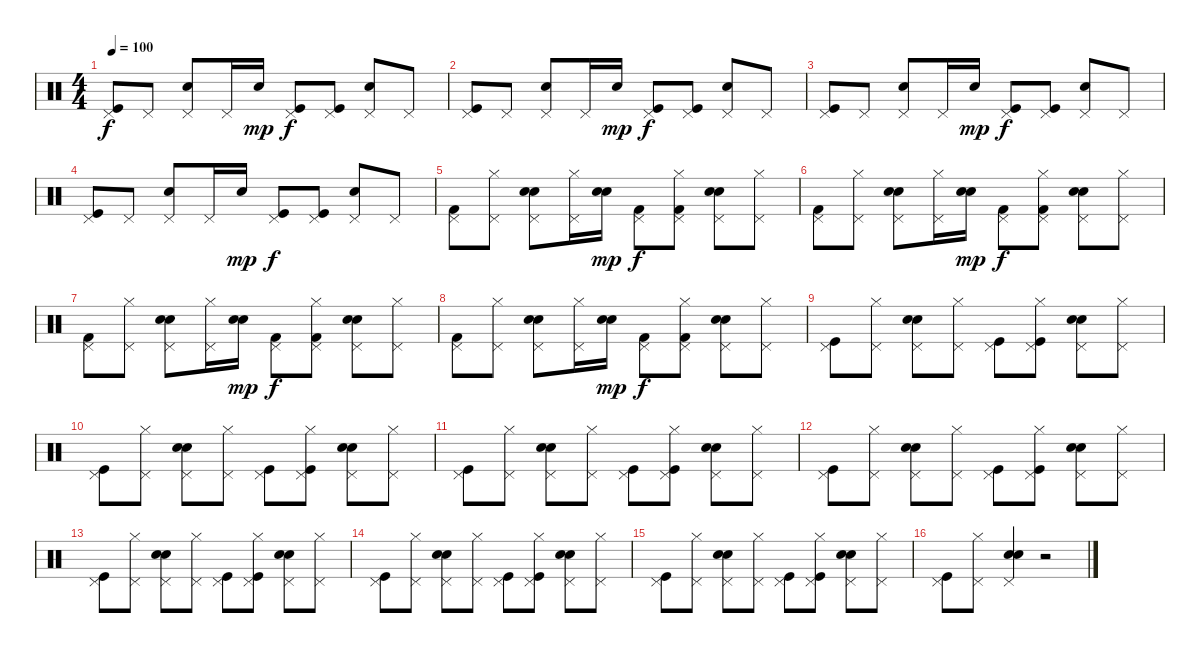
\track "" {instrument percussion}
\staff {score}
\articulation defaults
\ts (4 4)
\tempo 100
\clef neutral
\ks c
("Pedal Hi-Hat (hit)" "Kick (hit)").8{dy f} "Pedal Hi-Hat (hit)".8 ("Electric Snare (hit)" "Pedal Hi-Hat (hit)").8 "Pedal Hi-Hat (hit)".16 "Electric Snare (hit)".16{dy mp} ("Pedal Hi-Hat (hit)" "Kick (hit)").8{dy f} ("Pedal Hi-Hat (hit)" "Kick (hit)").8 ("Electric Snare (hit)" "Pedal Hi-Hat (hit)").8 "Pedal Hi-Hat (hit)".8 |
("Pedal Hi-Hat (hit)" "Kick (hit)").8 "Pedal Hi-Hat (hit)".8 ("Electric Snare (hit)" "Pedal Hi-Hat (hit)").8 "Pedal Hi-Hat (hit)".16 "Electric Snare (hit)".16{dy mp} ("Pedal Hi-Hat (hit)" "Kick (hit)").8{dy f} ("Pedal Hi-Hat (hit)" "Kick (hit)").8 ("Electric Snare (hit)" "Pedal Hi-Hat (hit)").8 "Pedal Hi-Hat (hit)".8 |
("Pedal Hi-Hat (hit)" "Kick (hit)").8 "Pedal Hi-Hat (hit)".8 ("Electric Snare (hit)" "Pedal Hi-Hat (hit)").8 "Pedal Hi-Hat (hit)".16 "Electric Snare (hit)".16{dy mp} ("Pedal Hi-Hat (hit)" "Kick (hit)").8{dy f} ("Pedal Hi-Hat (hit)" "Kick (hit)").8 ("Electric Snare (hit)" "Pedal Hi-Hat (hit)").8 "Pedal Hi-Hat (hit)".8 |
("Pedal Hi-Hat (hit)" "Kick (hit)").8 "Pedal Hi-Hat (hit)".8 ("Electric Snare (hit)" "Pedal Hi-Hat (hit)").8 "Pedal Hi-Hat (hit)".16 "Electric Snare (hit)".16{dy mp} ("Pedal Hi-Hat (hit)" "Kick (hit)").8{dy f} ("Pedal Hi-Hat (hit)" "Kick (hit)").8 ("Electric Snare (hit)" "Pedal Hi-Hat (hit)").8 "Pedal Hi-Hat (hit)".8 |
("Pedal Hi-Hat (hit)" "Kick (hit) 2").8 ("Hi-Hat (closed)" "Pedal Hi-Hat (hit)").8 ("Snare (hit) 2" "Electric Snare (hit)" "Pedal Hi-Hat (hit)").8 ("Hi-Hat (closed)" "Pedal Hi-Hat (hit)").16 ("Electric Snare (hit)" "Snare (hit) 2").16{dy mp} ("Pedal Hi-Hat (hit)" "Kick (hit) 2").8{dy f} ("Hi-Hat (closed)" "Pedal Hi-Hat (hit)" "Kick (hit) 2").8 ("Snare (hit) 2" "Electric Snare (hit)" "Pedal Hi-Hat (hit)").8 ("Hi-Hat (closed)" "Pedal Hi-Hat (hit)").8 |
("Pedal Hi-Hat (hit)" "Kick (hit) 2").8 ("Hi-Hat (closed)" "Pedal Hi-Hat (hit)").8 ("Snare (hit) 2" "Electric Snare (hit)" "Pedal Hi-Hat (hit)").8 ("Hi-Hat (closed)" "Pedal Hi-Hat (hit)").16 ("Electric Snare (hit)" "Snare (hit) 2").16{dy mp} ("Pedal Hi-Hat (hit)" "Kick (hit) 2").8{dy f} ("Hi-Hat (closed)" "Pedal Hi-Hat (hit)" "Kick (hit) 2").8 ("Snare (hit) 2" "Electric Snare (hit)" "Pedal Hi-Hat (hit)").8 ("Hi-Hat (closed)" "Pedal Hi-Hat (hit)").8 |
("Pedal Hi-Hat (hit)" "Kick (hit) 2").8 ("Hi-Hat (closed)" "Pedal Hi-Hat (hit)").8 ("Snare (hit) 2" "Electric Snare (hit)" "Pedal Hi-Hat (hit)").8 ("Hi-Hat (closed)" "Pedal Hi-Hat (hit)").16 ("Electric Snare (hit)" "Snare (hit) 2").16{dy mp} ("Pedal Hi-Hat (hit)" "Kick (hit) 2").8{dy f} ("Hi-Hat (closed)" "Pedal Hi-Hat (hit)" "Kick (hit) 2").8 ("Snare (hit) 2" "Electric Snare (hit)" "Pedal Hi-Hat (hit)").8 ("Hi-Hat (closed)" "Pedal Hi-Hat (hit)").8 |
("Pedal Hi-Hat (hit)" "Kick (hit) 2").8 ("Hi-Hat (closed)" "Pedal Hi-Hat (hit)").8 ("Snare (hit) 2" "Electric Snare (hit)" "Pedal Hi-Hat (hit)").8 ("Hi-Hat (closed)" "Pedal Hi-Hat (hit)").16 ("Electric Snare (hit)" "Snare (hit) 2").16{dy mp} ("Pedal Hi-Hat (hit)" "Kick (hit) 2").8{dy f} ("Hi-Hat (closed)" "Pedal Hi-Hat (hit)" "Kick (hit) 2").8 ("Snare (hit) 2" "Electric Snare (hit)" "Pedal Hi-Hat (hit)").8 ("Hi-Hat (closed)" "Pedal Hi-Hat (hit)").8 |
("Pedal Hi-Hat (hit)" "Kick (hit)").8 ("Hi-Hat (closed)" "Pedal Hi-Hat (hit)").8 ("Snare (hit) 2" "Electric Snare (hit)" "Pedal Hi-Hat (hit)").8 ("Hi-Hat (closed)" "Pedal Hi-Hat (hit)").8 ("Pedal Hi-Hat (hit)" "Kick (hit)").8 ("Hi-Hat (closed)" "Pedal Hi-Hat (hit)" "Kick (hit)").8 ("Snare (hit) 2" "Electric Snare (hit)" "Pedal Hi-Hat (hit)").8 ("Hi-Hat (closed)" "Pedal Hi-Hat (hit)").8 |
("Pedal Hi-Hat (hit)" "Kick (hit)").8 ("Hi-Hat (closed)" "Pedal Hi-Hat (hit)").8 ("Snare (hit) 2" "Electric Snare (hit)" "Pedal Hi-Hat (hit)").8 ("Hi-Hat (closed)" "Pedal Hi-Hat (hit)").8 ("Pedal Hi-Hat (hit)" "Kick (hit)").8 ("Hi-Hat (closed)" "Pedal Hi-Hat (hit)" "Kick (hit)").8 ("Snare (hit) 2" "Electric Snare (hit)" "Pedal Hi-Hat (hit)").8 ("Hi-Hat (closed)" "Pedal Hi-Hat (hit)").8 |
("Pedal Hi-Hat (hit)" "Kick (hit)").8 ("Hi-Hat (closed)" "Pedal Hi-Hat (hit)").8 ("Snare (hit) 2" "Electric Snare (hit)" "Pedal Hi-Hat (hit)").8 ("Hi-Hat (closed)" "Pedal Hi-Hat (hit)").8 ("Pedal Hi-Hat (hit)" "Kick (hit)").8 ("Hi-Hat (closed)" "Pedal Hi-Hat (hit)" "Kick (hit)").8 ("Snare (hit) 2" "Electric Snare (hit)" "Pedal Hi-Hat (hit)").8 ("Hi-Hat (closed)" "Pedal Hi-Hat (hit)").8 |
("Pedal Hi-Hat (hit)" "Kick (hit)").8 ("Hi-Hat (closed)" "Pedal Hi-Hat (hit)").8 ("Snare (hit) 2" "Electric Snare (hit)" "Pedal Hi-Hat (hit)").8 ("Hi-Hat (closed)" "Pedal Hi-Hat (hit)").8 ("Pedal Hi-Hat (hit)" "Kick (hit)").8 ("Hi-Hat (closed)" "Pedal Hi-Hat (hit)" "Kick (hit)").8 ("Snare (hit) 2" "Electric Snare (hit)" "Pedal Hi-Hat (hit)").8 ("Hi-Hat (closed)" "Pedal Hi-Hat (hit)").8 |
("Pedal Hi-Hat (hit)" "Kick (hit)").8 ("Hi-Hat (closed)" "Pedal Hi-Hat (hit)").8 ("Snare (hit) 2" "Electric Snare (hit)" "Pedal Hi-Hat (hit)").8 ("Hi-Hat (closed)" "Pedal Hi-Hat (hit)").8 ("Pedal Hi-Hat (hit)" "Kick (hit)").8 ("Hi-Hat (closed)" "Pedal Hi-Hat (hit)" "Kick (hit)").8 ("Snare (hit) 2" "Electric Snare (hit)" "Pedal Hi-Hat (hit)").8 ("Hi-Hat (closed)" "Pedal Hi-Hat (hit)").8 |
("Pedal Hi-Hat (hit)" "Kick (hit)").8 ("Hi-Hat (closed)" "Pedal Hi-Hat (hit)").8 ("Snare (hit) 2" "Electric Snare (hit)" "Pedal Hi-Hat (hit)").8 ("Hi-Hat (closed)" "Pedal Hi-Hat (hit)").8 ("Pedal Hi-Hat (hit)" "Kick (hit)").8 ("Hi-Hat (closed)" "Pedal Hi-Hat (hit)" "Kick (hit)").8 ("Snare (hit) 2" "Electric Snare (hit)" "Pedal Hi-Hat (hit)").8 ("Hi-Hat (closed)" "Pedal Hi-Hat (hit)").8 |
("Pedal Hi-Hat (hit)" "Kick (hit)").8 ("Hi-Hat (closed)" "Pedal Hi-Hat (hit)").8 ("Snare (hit) 2" "Electric Snare (hit)" "Pedal Hi-Hat (hit)").8 ("Hi-Hat (closed)" "Pedal Hi-Hat (hit)").8 ("Pedal Hi-Hat (hit)" "Kick (hit)").8 ("Hi-Hat (closed)" "Pedal Hi-Hat (hit)" "Kick (hit)").8 ("Snare (hit) 2" "Electric Snare (hit)" "Pedal Hi-Hat (hit)").8 ("Hi-Hat (closed)" "Pedal Hi-Hat (hit)").8 |
("Pedal Hi-Hat (hit)" "Kick (hit)").8 ("Hi-Hat (closed)" "Pedal Hi-Hat (hit)").8 ("Snare (hit) 2" "Electric Snare (hit)" "Pedal Hi-Hat (hit)").4 r.2
